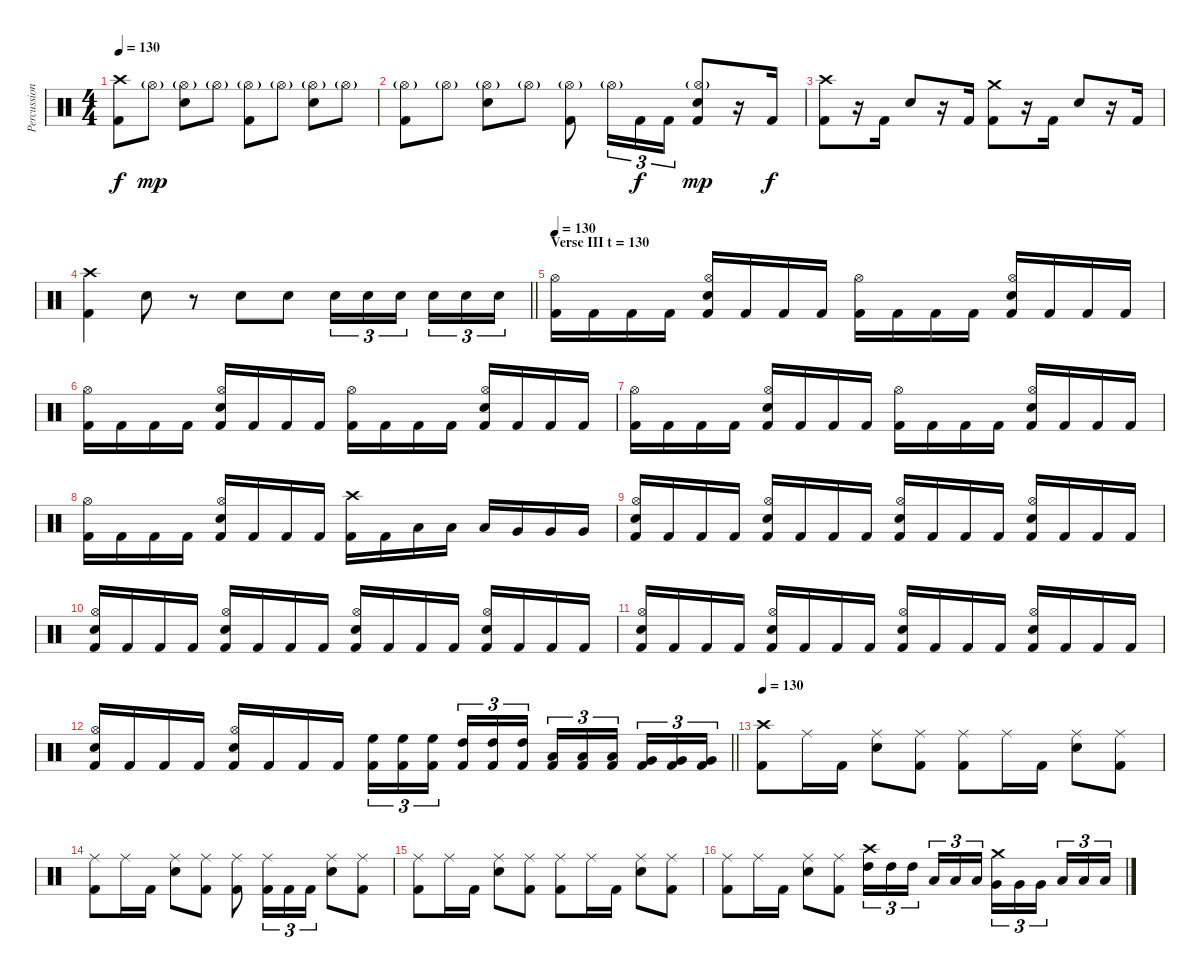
\track ("Percussion" "Percussion") {instrument percussion}
\staff {score}
\articulation defaults
\ts (4 4)
\tempo 130
\clef neutral
\ks c
("Crash high (hit)" "Kick (hit) 2").8{dy f} "Hi-Hat (open)"{g}.8{dy mp} ("Hi-Hat (open)"{g} "Electric Snare (hit)").8 "Hi-Hat (open)"{g}.8 ("Hi-Hat (open)"{g} "Kick (hit) 2").8 "Hi-Hat (open)"{g}.8 ("Hi-Hat (open)"{g} "Electric Snare (hit)").8 "Hi-Hat (open)"{g}.8 |
("Hi-Hat (open)"{g} "Kick (hit) 2").8 "Hi-Hat (open)"{g}.8 ("Hi-Hat (open)"{g} "Electric Snare (hit)").8 "Hi-Hat (open)"{g}.8 ("Hi-Hat (open)"{g} "Kick (hit) 2").8 "Hi-Hat (open)"{g}.16{tu (3 2)} "Kick (hit) 2".16{tu (3 2) dy f} "Kick (hit) 2".16{tu (3 2)} ("Hi-Hat (open)"{g} "Electric Snare (hit)" "Kick (hit) 2").8{dy mp} r.16 "Kick (hit) 2".16{dy f} |
("Crash high (hit)" "Kick (hit) 2").8 r.16 "Kick (hit) 2".16 "Electric Snare (hit)".8 r.16 "Kick (hit) 2".16 ("Crash medium (hit)" "Kick (hit) 2").8 r.16 "Kick (hit) 2".16 "Electric Snare (hit)".8 r.16 "Kick (hit) 2".16 |
\barLineRight lightlight
("Crash high (hit)" "Kick (hit) 2").4 "Electric Snare (hit)".8 r.8 "Electric Snare (hit)".8 "Electric Snare (hit)".8 "Electric Snare (hit)".16{tu (3 2)} "Electric Snare (hit)".16{tu (3 2)} "Electric Snare (hit)".16{tu (3 2) beam splitsecondary} "Electric Snare (hit)".16{tu (3 2)} "Electric Snare (hit)".16{tu (3 2)} "Electric Snare (hit)".16{tu (3 2)} |
\section ("" "Verse III t = 130")
\tempo 130
("Hi-Hat (open)" "Kick (hit) 2").16 "Kick (hit) 2".16 "Kick (hit) 2".16 "Kick (hit) 2".16 ("Hi-Hat (open)" "Electric Snare (hit)" "Kick (hit) 2").16 "Kick (hit) 2".16 "Kick (hit) 2".16 "Kick (hit) 2".16 ("Hi-Hat (open)" "Kick (hit) 2").16 "Kick (hit) 2".16 "Kick (hit) 2".16 "Kick (hit) 2".16 ("Hi-Hat (open)" "Electric Snare (hit)" "Kick (hit) 2").16 "Kick (hit) 2".16 "Kick (hit) 2".16 "Kick (hit) 2".16 |
("Hi-Hat (open)" "Kick (hit) 2").16 "Kick (hit) 2".16 "Kick (hit) 2".16 "Kick (hit) 2".16 ("Hi-Hat (open)" "Electric Snare (hit)" "Kick (hit) 2").16 "Kick (hit) 2".16 "Kick (hit) 2".16 "Kick (hit) 2".16 ("Hi-Hat (open)" "Kick (hit) 2").16 "Kick (hit) 2".16 "Kick (hit) 2".16 "Kick (hit) 2".16 ("Hi-Hat (open)" "Electric Snare (hit)" "Kick (hit) 2").16 "Kick (hit) 2".16 "Kick (hit) 2".16 "Kick (hit) 2".16 |
("Hi-Hat (open)" "Kick (hit) 2").16 "Kick (hit) 2".16 "Kick (hit) 2".16 "Kick (hit) 2".16 ("Hi-Hat (open)" "Electric Snare (hit)" "Kick (hit) 2").16 "Kick (hit) 2".16 "Kick (hit) 2".16 "Kick (hit) 2".16 ("Hi-Hat (open)" "Kick (hit) 2").16 "Kick (hit) 2".16 "Kick (hit) 2".16 "Kick (hit) 2".16 ("Hi-Hat (open)" "Electric Snare (hit)" "Kick (hit) 2").16 "Kick (hit) 2".16 "Kick (hit) 2".16 "Kick (hit) 2".16 |
("Hi-Hat (open)" "Kick (hit) 2").16 "Kick (hit) 2".16 "Kick (hit) 2".16 "Kick (hit) 2".16 ("Hi-Hat (open)" "Electric Snare (hit)" "Kick (hit) 2").16 "Kick (hit) 2".16 "Kick (hit) 2".16 "Kick (hit) 2".16 ("Crash high (hit)" "Kick (hit) 2").16 "Kick (hit) 2".16 "Low Tom (hit)".16 "Low Tom (hit)".16 "Low Tom (hit)".16 "Very Low Tom (hit)".16 "Very Low Tom (hit)".16 "Very Low Tom (hit)".16 |
("Hi-Hat (open)" "Electric Snare (hit)" "Kick (hit) 2").16 "Kick (hit) 2".16 "Kick (hit) 2".16 "Kick (hit) 2".16 ("Hi-Hat (open)" "Electric Snare (hit)" "Kick (hit) 2").16 "Kick (hit) 2".16 "Kick (hit) 2".16 "Kick (hit) 2".16 ("Hi-Hat (open)" "Electric Snare (hit)" "Kick (hit) 2").16 "Kick (hit) 2".16 "Kick (hit) 2".16 "Kick (hit) 2".16 ("Hi-Hat (open)" "Electric Snare (hit)" "Kick (hit) 2").16 "Kick (hit) 2".16 "Kick (hit) 2".16 "Kick (hit) 2".16 |
("Hi-Hat (open)" "Electric Snare (hit)" "Kick (hit) 2").16 "Kick (hit) 2".16 "Kick (hit) 2".16 "Kick (hit) 2".16 ("Hi-Hat (open)" "Electric Snare (hit)" "Kick (hit) 2").16 "Kick (hit) 2".16 "Kick (hit) 2".16 "Kick (hit) 2".16 ("Hi-Hat (open)" "Electric Snare (hit)" "Kick (hit) 2").16 "Kick (hit) 2".16 "Kick (hit) 2".16 "Kick (hit) 2".16 ("Hi-Hat (open)" "Electric Snare (hit)" "Kick (hit) 2").16 "Kick (hit) 2".16 "Kick (hit) 2".16 "Kick (hit) 2".16 |
("Hi-Hat (open)" "Electric Snare (hit)" "Kick (hit) 2").16 "Kick (hit) 2".16 "Kick (hit) 2".16 "Kick (hit) 2".16 ("Hi-Hat (open)" "Electric Snare (hit)" "Kick (hit) 2").16 "Kick (hit) 2".16 "Kick (hit) 2".16 "Kick (hit) 2".16 ("Hi-Hat (open)" "Electric Snare (hit)" "Kick (hit) 2").16 "Kick (hit) 2".16 "Kick (hit) 2".16 "Kick (hit) 2".16 ("Hi-Hat (open)" "Electric Snare (hit)" "Kick (hit) 2").16 "Kick (hit) 2".16 "Kick (hit) 2".16 "Kick (hit) 2".16 |
\barLineRight lightlight
("Hi-Hat (open)" "Electric Snare (hit)" "Kick (hit) 2").16 "Kick (hit) 2".16 "Kick (hit) 2".16 "Kick (hit) 2".16 ("Hi-Hat (open)" "Electric Snare (hit)" "Kick (hit) 2").16 "Kick (hit) 2".16 "Kick (hit) 2".16 "Kick (hit) 2".16 ("High Floor Tom (hit)" "Kick (hit) 2").16{tu (3 2)} ("High Floor Tom (hit)" "Kick (hit) 2").16{tu (3 2)} ("High Floor Tom (hit)" "Kick (hit) 2").16{tu (3 2) beam splitsecondary} ("High Tom (hit)" "Kick (hit) 2").16{tu (3 2)} ("High Tom (hit)" "Kick (hit) 2").16{tu (3 2)} ("High Tom (hit)" "Kick (hit) 2").16{tu (3 2)} ("Low Tom (hit)" "Kick (hit) 2").16{tu (3 2)} ("Low Tom (hit)" "Kick (hit) 2").16{tu (3 2)} ("Low Tom (hit)" "Kick (hit) 2").16{tu (3 2) beam splitsecondary} ("Very Low Tom (hit)" "Kick (hit) 2").16{tu (3 2)} ("Very Low Tom (hit)" "Kick (hit) 2").16{tu (3 2)} ("Very Low Tom (hit)" "Kick (hit) 2").16{tu (3 2)} |
\tempo 130
("Crash high (hit)" "Kick (hit) 2").8 "Ride (middle)".16 "Kick (hit) 2".16 ("Ride (middle)" "Electric Snare (hit)").8 ("Ride (middle)" "Kick (hit) 2").8 ("Ride (middle)" "Kick (hit) 2").8 "Ride (middle)".16 "Kick (hit) 2".16 ("Ride (middle)" "Electric Snare (hit)").8 ("Ride (middle)" "Kick (hit) 2").8 |
("Ride (middle)" "Kick (hit) 2").8 "Ride (middle)".16 "Kick (hit) 2".16 ("Ride (middle)" "Electric Snare (hit)").8 ("Ride (middle)" "Kick (hit) 2").8 ("Ride (middle)" "Kick (hit) 2").8 ("Ride (middle)" "Kick (hit) 2").16{tu (3 2)} "Kick (hit) 2".16{tu (3 2)} "Kick (hit) 2".16{tu (3 2)} ("Ride (middle)" "Electric Snare (hit)").8 ("Ride (middle)" "Kick (hit) 2").8 |
("Ride (middle)" "Kick (hit) 2").8 "Ride (middle)".16 "Kick (hit) 2".16 ("Ride (middle)" "Electric Snare (hit)").8 ("Ride (middle)" "Kick (hit) 2").8 ("Ride (middle)" "Kick (hit) 2").8 "Ride (middle)".16 "Kick (hit) 2".16 ("Ride (middle)" "Electric Snare (hit)").8 ("Ride (middle)" "Kick (hit) 2").8 |
("Ride (middle)" "Kick (hit) 2").8 "Ride (middle)".16 "Kick (hit) 2".16 ("Ride (middle)" "Electric Snare (hit)").8 ("Ride (middle)" "Kick (hit) 2").8 ("Crash high (hit)" "High Tom (hit)").16{tu (3 2)} "High Tom (hit)".16{tu (3 2)} "High Tom (hit)".16{tu (3 2) beam splitsecondary} "Low Tom (hit)".16{tu (3 2)} "Low Tom (hit)".16{tu (3 2)} "Low Tom (hit)".16{tu (3 2)} ("Crash medium (hit)" "Very Low Tom (hit)").16{tu (3 2)} "Very Low Tom (hit)".16{tu (3 2)} "Very Low Tom (hit)".16{tu (3 2) beam splitsecondary} "Low Floor Tom (hit)".16{tu (3 2)} "Low Floor Tom (hit)".16{tu (3 2)} "Low Floor Tom (hit)".16{tu (3 2)}
